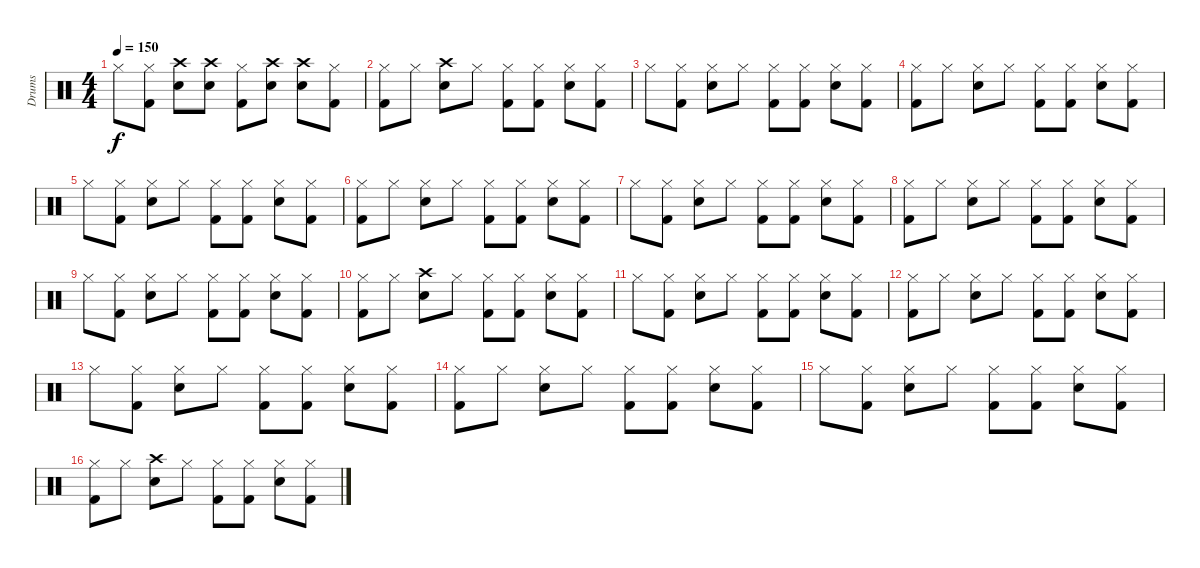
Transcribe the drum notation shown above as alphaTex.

\track ("Drums" "Drums") {instrument percussion}
\staff {score}
\articulation defaults
\ts (4 4)
\tempo 150
\clef neutral
\ks c "Hi-Hat (closed)".8{dy f}
("Kick (hit) 2" "Hi-Hat (closed)").8 ("Crash high (hit)" "Snare (hit) 2").8 ("Crash high (hit)" "Snare (hit) 2").8 ("Kick (hit) 2" "Hi-Hat (closed)").8 ("Crash high (hit)" "Snare (hit) 2").8 ("Crash high (hit)" "Snare (hit) 2").8 ("Kick (hit) 2" "Hi-Hat (closed)").8 |
("Kick (hit) 2" "Hi-Hat (closed)").8 "Hi-Hat (closed)".8 ("Snare (hit) 2" "Crash high (hit)").8 "Hi-Hat (closed)".8 ("Kick (hit) 2" "Hi-Hat (closed)").8 ("Kick (hit) 2" "Hi-Hat (closed)").8 ("Snare (hit) 2" "Hi-Hat (closed)").8 ("Kick (hit) 2" "Hi-Hat (closed)").8 |
"Hi-Hat (closed)".8 ("Kick (hit) 2" "Hi-Hat (closed)").8 ("Snare (hit) 2" "Hi-Hat (closed)").8 "Hi-Hat (closed)".8 ("Kick (hit) 2" "Hi-Hat (closed)").8 ("Kick (hit) 2" "Hi-Hat (closed)").8 ("Snare (hit) 2" "Hi-Hat (closed)").8 ("Kick (hit) 2" "Hi-Hat (closed)").8 |
("Kick (hit) 2" "Hi-Hat (closed)").8 "Hi-Hat (closed)".8 ("Snare (hit) 2" "Hi-Hat (closed)").8 "Hi-Hat (closed)".8 ("Kick (hit) 2" "Hi-Hat (closed)").8 ("Kick (hit) 2" "Hi-Hat (closed)").8 ("Snare (hit) 2" "Hi-Hat (closed)").8 ("Kick (hit) 2" "Hi-Hat (closed)").8 |
"Hi-Hat (closed)".8 ("Kick (hit) 2" "Hi-Hat (closed)").8 ("Snare (hit) 2" "Hi-Hat (closed)").8 "Hi-Hat (closed)".8 ("Kick (hit) 2" "Hi-Hat (closed)").8 ("Kick (hit) 2" "Hi-Hat (closed)").8 ("Snare (hit) 2" "Hi-Hat (closed)").8 ("Kick (hit) 2" "Hi-Hat (closed)").8 |
("Kick (hit) 2" "Hi-Hat (closed)").8 "Hi-Hat (closed)".8 ("Snare (hit) 2" "Hi-Hat (closed)").8 "Hi-Hat (closed)".8 ("Kick (hit) 2" "Hi-Hat (closed)").8 ("Kick (hit) 2" "Hi-Hat (closed)").8 ("Snare (hit) 2" "Hi-Hat (closed)").8 ("Kick (hit) 2" "Hi-Hat (closed)").8 |
"Hi-Hat (closed)".8 ("Kick (hit) 2" "Hi-Hat (closed)").8 ("Snare (hit) 2" "Hi-Hat (closed)").8 "Hi-Hat (closed)".8 ("Kick (hit) 2" "Hi-Hat (closed)").8 ("Kick (hit) 2" "Hi-Hat (closed)").8 ("Snare (hit) 2" "Hi-Hat (closed)").8 ("Kick (hit) 2" "Hi-Hat (closed)").8 |
("Kick (hit) 2" "Hi-Hat (closed)").8 "Hi-Hat (closed)".8 ("Snare (hit) 2" "Hi-Hat (closed)").8 "Hi-Hat (closed)".8 ("Kick (hit) 2" "Hi-Hat (closed)").8 ("Kick (hit) 2" "Hi-Hat (closed)").8 ("Snare (hit) 2" "Hi-Hat (closed)").8 ("Kick (hit) 2" "Hi-Hat (closed)").8 |
"Hi-Hat (closed)".8 ("Kick (hit) 2" "Hi-Hat (closed)").8 ("Snare (hit) 2" "Hi-Hat (closed)").8 "Hi-Hat (closed)".8 ("Kick (hit) 2" "Hi-Hat (closed)").8 ("Kick (hit) 2" "Hi-Hat (closed)").8 ("Snare (hit) 2" "Hi-Hat (closed)").8 ("Kick (hit) 2" "Hi-Hat (closed)").8 |
("Kick (hit) 2" "Hi-Hat (closed)").8 "Hi-Hat (closed)".8 ("Snare (hit) 2" "Crash high (hit)").8 "Hi-Hat (closed)".8 ("Kick (hit) 2" "Hi-Hat (closed)").8 ("Kick (hit) 2" "Hi-Hat (closed)").8 ("Snare (hit) 2" "Hi-Hat (closed)").8 ("Kick (hit) 2" "Hi-Hat (closed)").8 |
"Hi-Hat (closed)".8 ("Kick (hit) 2" "Hi-Hat (closed)").8 ("Snare (hit) 2" "Hi-Hat (closed)").8 "Hi-Hat (closed)".8 ("Kick (hit) 2" "Hi-Hat (closed)").8 ("Kick (hit) 2" "Hi-Hat (closed)").8 ("Snare (hit) 2" "Hi-Hat (closed)").8 ("Kick (hit) 2" "Hi-Hat (closed)").8 |
("Kick (hit) 2" "Hi-Hat (closed)").8 "Hi-Hat (closed)".8 ("Snare (hit) 2" "Hi-Hat (closed)").8 "Hi-Hat (closed)".8 ("Kick (hit) 2" "Hi-Hat (closed)").8 ("Kick (hit) 2" "Hi-Hat (closed)").8 ("Snare (hit) 2" "Hi-Hat (closed)").8 ("Kick (hit) 2" "Hi-Hat (closed)").8 |
"Hi-Hat (closed)".8 ("Kick (hit) 2" "Hi-Hat (closed)").8 ("Snare (hit) 2" "Hi-Hat (closed)").8 "Hi-Hat (closed)".8 ("Kick (hit) 2" "Hi-Hat (closed)").8 ("Kick (hit) 2" "Hi-Hat (closed)").8 ("Snare (hit) 2" "Hi-Hat (closed)").8 ("Kick (hit) 2" "Hi-Hat (closed)").8 |
("Kick (hit) 2" "Hi-Hat (closed)").8 "Hi-Hat (closed)".8 ("Snare (hit) 2" "Hi-Hat (closed)").8 "Hi-Hat (closed)".8 ("Kick (hit) 2" "Hi-Hat (closed)").8 ("Kick (hit) 2" "Hi-Hat (closed)").8 ("Snare (hit) 2" "Hi-Hat (closed)").8 ("Kick (hit) 2" "Hi-Hat (closed)").8 |
"Hi-Hat (closed)".8 ("Kick (hit) 2" "Hi-Hat (closed)").8 ("Snare (hit) 2" "Hi-Hat (closed)").8 "Hi-Hat (closed)".8 ("Kick (hit) 2" "Hi-Hat (closed)").8 ("Kick (hit) 2" "Hi-Hat (closed)").8 ("Snare (hit) 2" "Hi-Hat (closed)").8 ("Kick (hit) 2" "Hi-Hat (closed)").8 |
("Kick (hit) 2" "Hi-Hat (closed)").8 "Hi-Hat (closed)".8 ("Crash high (hit)" "Snare (hit) 2").8 "Hi-Hat (closed)".8 ("Kick (hit) 2" "Hi-Hat (closed)").8 ("Kick (hit) 2" "Hi-Hat (closed)").8 ("Snare (hit) 2" "Hi-Hat (closed)").8 ("Kick (hit) 2" "Hi-Hat (closed)").8
